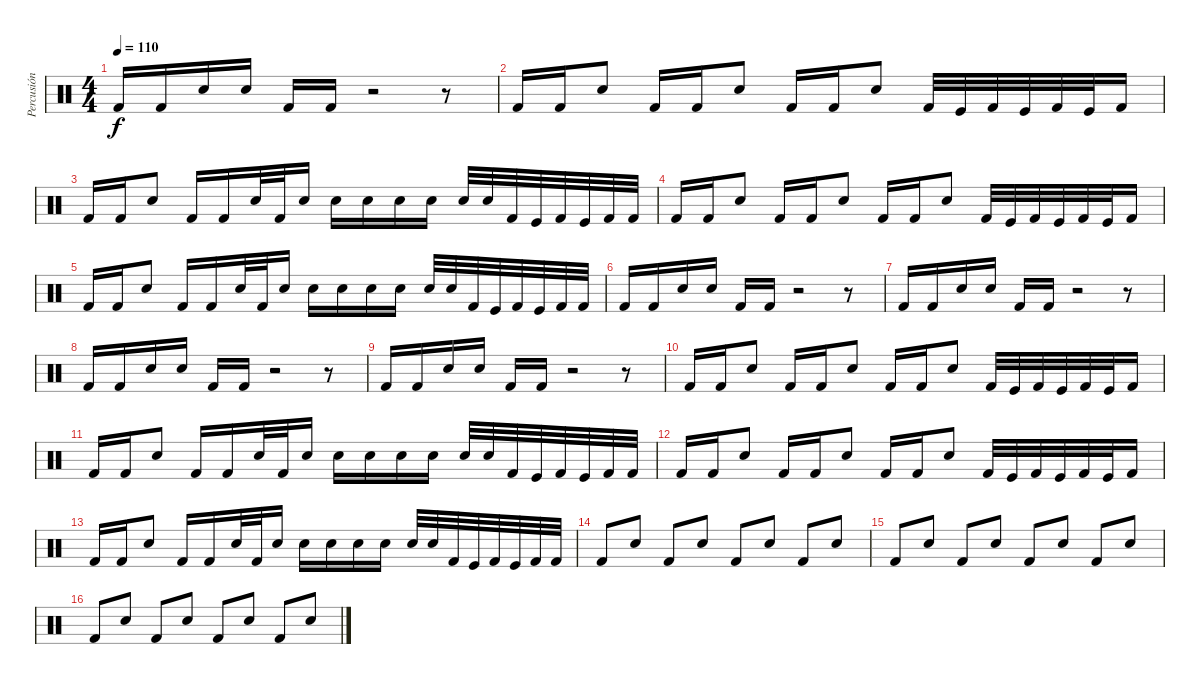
\track ("Percusión" "Percusión") {instrument percussion}
\staff {score}
\articulation defaults
\ts (4 4)
\tempo 110
\clef neutral
\ks c "Kick (hit) 2".16{dy f} "Kick (hit) 2".16 "Electric Snare (hit)".16 "Electric Snare (hit)".16 "Kick (hit) 2".16 "Kick (hit) 2".16
r.2 r.8 |
"Kick (hit) 2".16 "Kick (hit) 2".16 "Electric Snare (hit)".8 "Kick (hit) 2".16 "Kick (hit) 2".16 "Electric Snare (hit)".8 "Kick (hit) 2".16 "Kick (hit) 2".16 "Electric Snare (hit)".8 "Kick (hit) 2".32 "Kick (hit)".32 "Kick (hit) 2".32 "Kick (hit)".32 "Kick (hit) 2".32 "Kick (hit)".32 "Kick (hit) 2".16 |
"Kick (hit) 2".16 "Kick (hit) 2".16 "Electric Snare (hit)".8 "Kick (hit) 2".16 "Kick (hit) 2".16 "Electric Snare (hit)".32 "Kick (hit) 2".32 "Electric Snare (hit)".16 "Electric Snare (hit)".16 "Electric Snare (hit)".16 "Electric Snare (hit)".16 "Electric Snare (hit)".16 "Electric Snare (hit)".32 "Electric Snare (hit)".32 "Kick (hit) 2".32 "Kick (hit)".32 "Kick (hit) 2".32 "Kick (hit)".32 "Kick (hit) 2".32 "Kick (hit) 2".32 |
"Kick (hit) 2".16 "Kick (hit) 2".16 "Electric Snare (hit)".8 "Kick (hit) 2".16 "Kick (hit) 2".16 "Electric Snare (hit)".8 "Kick (hit) 2".16 "Kick (hit) 2".16 "Electric Snare (hit)".8 "Kick (hit) 2".32 "Kick (hit)".32 "Kick (hit) 2".32 "Kick (hit)".32 "Kick (hit) 2".32 "Kick (hit)".32 "Kick (hit) 2".16 |
"Kick (hit) 2".16 "Kick (hit) 2".16 "Electric Snare (hit)".8 "Kick (hit) 2".16 "Kick (hit) 2".16 "Electric Snare (hit)".32 "Kick (hit) 2".32 "Electric Snare (hit)".16 "Electric Snare (hit)".16 "Electric Snare (hit)".16 "Electric Snare (hit)".16 "Electric Snare (hit)".16 "Electric Snare (hit)".32 "Electric Snare (hit)".32 "Kick (hit) 2".32 "Kick (hit)".32 "Kick (hit) 2".32 "Kick (hit)".32 "Kick (hit) 2".32 "Kick (hit) 2".32 |
"Kick (hit) 2".16 "Kick (hit) 2".16 "Electric Snare (hit)".16 "Electric Snare (hit)".16 "Kick (hit) 2".16 "Kick (hit) 2".16 r.2 r.8 |
"Kick (hit) 2".16 "Kick (hit) 2".16 "Electric Snare (hit)".16 "Electric Snare (hit)".16 "Kick (hit) 2".16 "Kick (hit) 2".16 r.2 r.8 |
"Kick (hit) 2".16 "Kick (hit) 2".16 "Electric Snare (hit)".16 "Electric Snare (hit)".16 "Kick (hit) 2".16 "Kick (hit) 2".16 r.2 r.8 |
"Kick (hit) 2".16 "Kick (hit) 2".16 "Electric Snare (hit)".16 "Electric Snare (hit)".16 "Kick (hit) 2".16 "Kick (hit) 2".16 r.2 r.8 |
"Kick (hit) 2".16 "Kick (hit) 2".16 "Electric Snare (hit)".8 "Kick (hit) 2".16 "Kick (hit) 2".16 "Electric Snare (hit)".8 "Kick (hit) 2".16 "Kick (hit) 2".16 "Electric Snare (hit)".8 "Kick (hit) 2".32 "Kick (hit)".32 "Kick (hit) 2".32 "Kick (hit)".32 "Kick (hit) 2".32 "Kick (hit)".32 "Kick (hit) 2".16 |
"Kick (hit) 2".16 "Kick (hit) 2".16 "Electric Snare (hit)".8 "Kick (hit) 2".16 "Kick (hit) 2".16 "Electric Snare (hit)".32 "Kick (hit) 2".32 "Electric Snare (hit)".16 "Electric Snare (hit)".16 "Electric Snare (hit)".16 "Electric Snare (hit)".16 "Electric Snare (hit)".16 "Electric Snare (hit)".32 "Electric Snare (hit)".32 "Kick (hit) 2".32 "Kick (hit)".32 "Kick (hit) 2".32 "Kick (hit)".32 "Kick (hit) 2".32 "Kick (hit) 2".32 |
"Kick (hit) 2".16 "Kick (hit) 2".16 "Electric Snare (hit)".8 "Kick (hit) 2".16 "Kick (hit) 2".16 "Electric Snare (hit)".8 "Kick (hit) 2".16 "Kick (hit) 2".16 "Electric Snare (hit)".8 "Kick (hit) 2".32 "Kick (hit)".32 "Kick (hit) 2".32 "Kick (hit)".32 "Kick (hit) 2".32 "Kick (hit)".32 "Kick (hit) 2".16 |
"Kick (hit) 2".16 "Kick (hit) 2".16 "Electric Snare (hit)".8 "Kick (hit) 2".16 "Kick (hit) 2".16 "Electric Snare (hit)".32 "Kick (hit) 2".32 "Electric Snare (hit)".16 "Electric Snare (hit)".16 "Electric Snare (hit)".16 "Electric Snare (hit)".16 "Electric Snare (hit)".16 "Electric Snare (hit)".32 "Electric Snare (hit)".32 "Kick (hit) 2".32 "Kick (hit)".32 "Kick (hit) 2".32 "Kick (hit)".32 "Kick (hit) 2".32 "Kick (hit) 2".32 |
"Kick (hit) 2".8 "Electric Snare (hit)".8 "Kick (hit) 2".8 "Electric Snare (hit)".8 "Kick (hit) 2".8 "Electric Snare (hit)".8 "Kick (hit) 2".8 "Electric Snare (hit)".8 |
"Kick (hit) 2".8 "Electric Snare (hit)".8 "Kick (hit) 2".8 "Electric Snare (hit)".8 "Kick (hit) 2".8 "Electric Snare (hit)".8 "Kick (hit) 2".8 "Electric Snare (hit)".8 |
"Kick (hit) 2".8 "Electric Snare (hit)".8 "Kick (hit) 2".8 "Electric Snare (hit)".8 "Kick (hit) 2".8 "Electric Snare (hit)".8 "Kick (hit) 2".8 "Electric Snare (hit)".8
